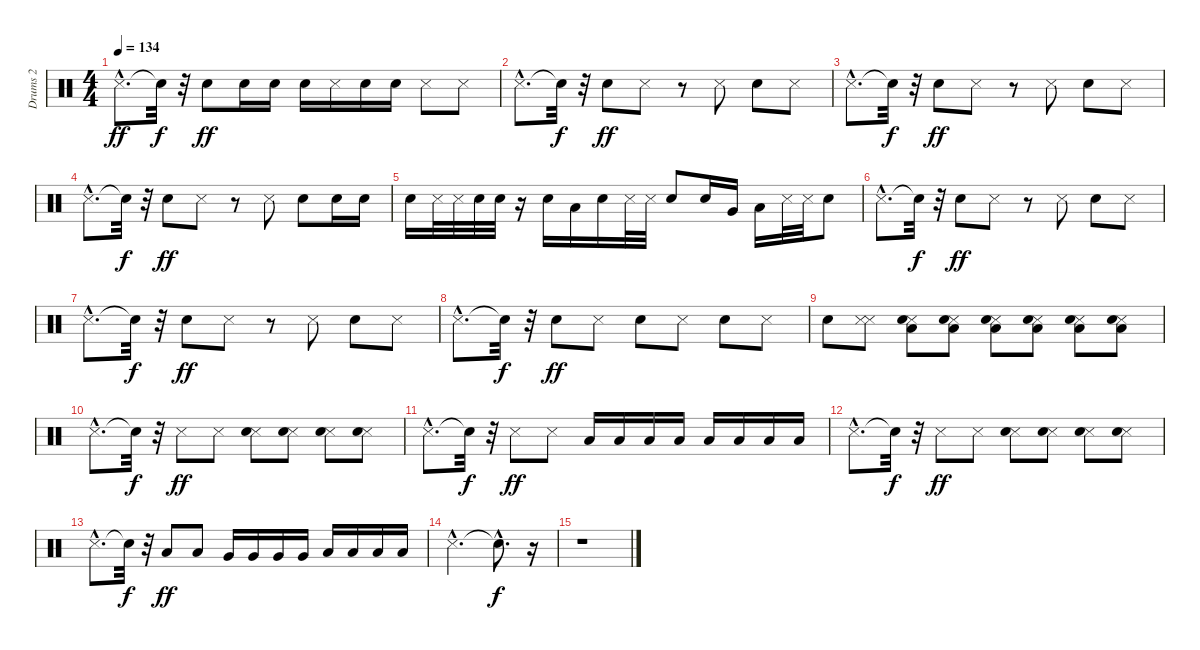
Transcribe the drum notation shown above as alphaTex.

\track ("Drums 2" "Drums 2") {instrument percussion}
\staff {score}
\articulation defaults
\ts (4 4)
\tempo 134
\clef neutral
\ks c "Metronome (hit)"{hac}.8{d dy ff} "Snare (hit)"{t}.32{dy f}
r.32 "Snare (hit) 2".8{dy ff} "Snare (hit) 2".16 "Snare (hit) 2".16 "Snare (hit) 2".16 "Metronome (hit)".16 "Snare (hit) 2".16 "Snare (hit) 2".16 "Metronome (hit)".8 "Metronome (hit)".8 |
"Metronome (hit)"{hac}.8{d} "Snare (hit)"{t}.32{dy f} r.32 "Snare (hit) 2".8{dy ff} "Metronome (hit)".8 r.8 "Metronome (hit)".8 "Snare (hit) 2".8 "Metronome (hit)".8 |
"Metronome (hit)"{hac}.8{d} "Snare (hit)"{t}.32{dy f} r.32 "Snare (hit) 2".8{dy ff} "Metronome (hit)".8 r.8 "Metronome (hit)".8 "Snare (hit) 2".8 "Metronome (hit)".8 |
"Metronome (hit)"{hac}.8{d} "Snare (hit)"{t}.32{dy f} r.32 "Snare (hit) 2".8{dy ff} "Metronome (hit)".8 r.8 "Metronome (hit)".8 "Snare (hit) 2".8 "Snare (hit) 2".16 "Snare (hit) 2".16 |
"Snare (hit) 2".16 "Metronome (hit)".32 "Metronome (hit)".32 "Snare (hit) 2".32 "Snare (hit) 2".32 r.16 "Snare (hit) 2".16 "Low Tom (hit)".16 "Snare (hit) 2".16 "Metronome (hit)".32 "Metronome (hit)".32 "Snare (hit) 2".8 "Snare (hit) 2".16 "Very Low Tom (hit)".16 "Low Tom (hit)".16 "Metronome (hit)".32 "Metronome (hit)".32 "Snare (hit) 2".8 |
"Metronome (hit)"{hac}.8{d} "Snare (hit)"{t}.32{dy f} r.32 "Snare (hit) 2".8{dy ff} "Metronome (hit)".8 r.8 "Metronome (hit)".8 "Snare (hit) 2".8 "Metronome (hit)".8 |
"Metronome (hit)"{hac}.8{d} "Snare (hit)"{t}.32{dy f} r.32 "Snare (hit) 2".8{dy ff} "Metronome (hit)".8 r.8 "Metronome (hit)".8 "Snare (hit) 2".8 "Metronome (hit)".8 |
"Metronome (hit)"{hac}.8{d} "Snare (hit)"{t}.32{dy f} r.32 "Snare (hit) 2".8{dy ff} "Metronome (hit)".8 "Snare (hit) 2".8 "Metronome (hit)".8 "Snare (hit) 2".8 "Metronome (hit)".8 |
"Snare (hit) 2".8 ("Metronome (hit)" "Metronome (hit)").8 ("Metronome (hit)" "Snare (hit) 2" "Low Floor Tom (hit)").8 ("Metronome (hit)" "Snare (hit) 2" "Low Floor Tom (hit)").8 ("Metronome (hit)" "Snare (hit) 2" "Low Floor Tom (hit)").8 ("Metronome (hit)" "Snare (hit) 2" "Low Floor Tom (hit)").8 ("Metronome (hit)" "Snare (hit) 2" "Low Floor Tom (hit)").8 ("Metronome (hit)" "Snare (hit) 2" "Low Floor Tom (hit)").8 |
"Metronome (hit)"{hac}.8{d} "Snare (hit)"{t}.32{dy f} r.32 "Metronome (hit)".8{dy ff} "Metronome (hit)".8 ("Metronome (hit)" "Snare (hit) 2").8 ("Metronome (hit)" "Snare (hit) 2").8 ("Metronome (hit)" "Snare (hit) 2").8 ("Metronome (hit)" "Snare (hit) 2").8 |
"Metronome (hit)"{hac}.8{d} "Snare (hit)"{t}.32{dy f} r.32 "Metronome (hit)".8{dy ff} "Metronome (hit)".8 "Low Tom (hit)".16 "Low Tom (hit)".16 "Low Tom (hit)".16 "Low Tom (hit)".16 "Low Floor Tom (hit)".16 "Low Floor Tom (hit)".16 "Low Floor Tom (hit)".16 "Low Floor Tom (hit)".16 |
"Metronome (hit)"{hac}.8{d} "Snare (hit)"{t}.32{dy f} r.32 "Metronome (hit)".8{dy ff} "Metronome (hit)".8 ("Metronome (hit)" "Snare (hit) 2").8 ("Metronome (hit)" "Snare (hit) 2").8 ("Metronome (hit)" "Snare (hit) 2").8 ("Metronome (hit)" "Snare (hit) 2").8 |
"Metronome (hit)"{hac}.8{d} "Snare (hit)"{t}.32{dy f} r.32 "Low Tom (hit)".8{dy ff} "Low Tom (hit)".8 "Very Low Tom (hit)".16 "Very Low Tom (hit)".16 "Very Low Tom (hit)".16 "Very Low Tom (hit)".16 "Low Floor Tom (hit)".16 "Low Floor Tom (hit)".16 "Low Floor Tom (hit)".16 "Low Floor Tom (hit)".16 |
"Metronome (hit)"{hac}.2{d} "Snare (hit)"{hac t}.8{d dy f} r.16 |
r.1
